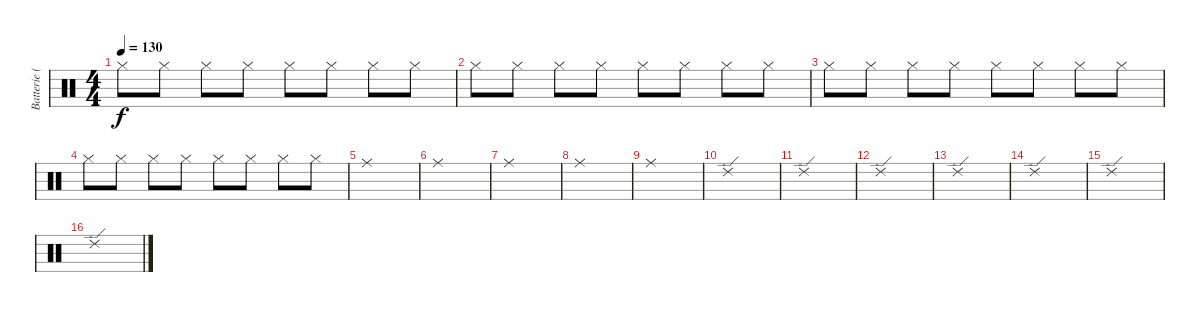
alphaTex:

\track ("Batterie (Batmo)" "Batterie (") {instrument percussion}
\staff {score}
\articulation defaults
\ts (4 4)
\tempo 130
\clef neutral
\ks c "Hi-Hat (closed)".8{dy f} "Hi-Hat (closed)".8 "Hi-Hat (closed)".8 "Hi-Hat (closed)".8 "Hi-Hat (closed)".8 "Hi-Hat (closed)".8 "Hi-Hat (closed)".8 "Hi-Hat (closed)".8
|
"Hi-Hat (closed)".8 "Hi-Hat (closed)".8 "Hi-Hat (closed)".8 "Hi-Hat (closed)".8 "Hi-Hat (closed)".8 "Hi-Hat (closed)".8 "Hi-Hat (closed)".8 "Hi-Hat (closed)".8 |
"Hi-Hat (closed)".8 "Hi-Hat (closed)".8 "Hi-Hat (closed)".8 "Hi-Hat (closed)".8 "Hi-Hat (closed)".8 "Hi-Hat (closed)".8 "Hi-Hat (closed)".8 "Hi-Hat (closed)".8 |
"Hi-Hat (closed)".8 "Hi-Hat (closed)".8 "Hi-Hat (closed)".8 "Hi-Hat (closed)".8 "Hi-Hat (closed)".8 "Hi-Hat (closed)".8 "Hi-Hat (closed)".8 "Hi-Hat (closed)".8 |
"Ride (middle)".1 |
"Ride (middle)".1 |
"Ride (middle)".1 |
"Ride (middle)".1 |
"Ride (middle)".1 |
"Ride (edge) 2".1 |
"Ride (edge) 2".1 |
"Ride (edge) 2".1 |
"Ride (edge) 2".1 |
"Ride (edge) 2".1 |
"Ride (edge) 2".1 |
"Ride (edge) 2".1
